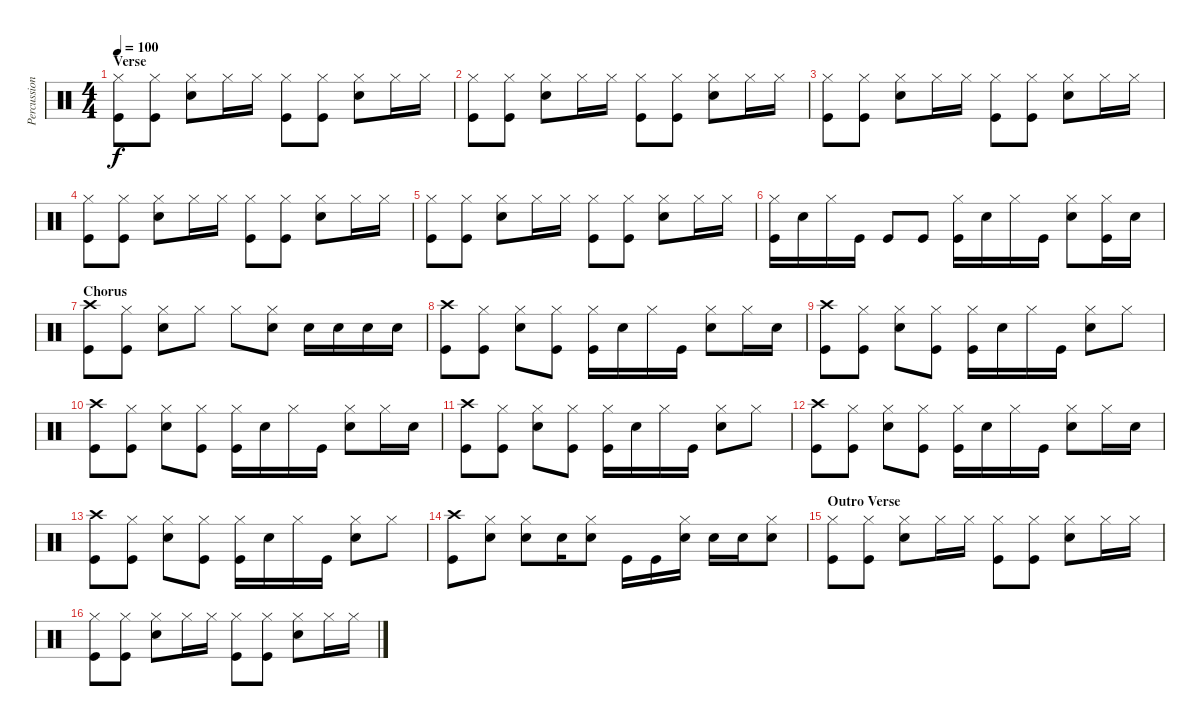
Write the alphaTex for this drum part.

\track ("Percussion" "Percussion") {instrument percussion}
\staff {score}
\articulation defaults
\ts (4 4)
\section ("" "Verse")
\tempo 100
\clef neutral
\ks c
("Hi-Hat (closed)" "Kick (hit)").8{dy f} ("Hi-Hat (closed)" "Kick (hit)").8 ("Hi-Hat (closed)" "Snare (hit) 2").8 "Hi-Hat (closed)".16 "Hi-Hat (closed)".16 ("Hi-Hat (closed)" "Kick (hit)").8 ("Hi-Hat (closed)" "Kick (hit)").8 ("Hi-Hat (closed)" "Snare (hit) 2").8 "Hi-Hat (closed)".16 "Hi-Hat (closed)".16 |
("Hi-Hat (closed)" "Kick (hit)").8 ("Hi-Hat (closed)" "Kick (hit)").8 ("Hi-Hat (closed)" "Snare (hit) 2").8 "Hi-Hat (closed)".16 "Hi-Hat (closed)".16 ("Hi-Hat (closed)" "Kick (hit)").8 ("Hi-Hat (closed)" "Kick (hit)").8 ("Hi-Hat (closed)" "Snare (hit) 2").8 "Hi-Hat (closed)".16 "Hi-Hat (closed)".16 |
("Hi-Hat (closed)" "Kick (hit)").8 ("Hi-Hat (closed)" "Kick (hit)").8 ("Hi-Hat (closed)" "Snare (hit) 2").8 "Hi-Hat (closed)".16 "Hi-Hat (closed)".16 ("Hi-Hat (closed)" "Kick (hit)").8 ("Hi-Hat (closed)" "Kick (hit)").8 ("Hi-Hat (closed)" "Snare (hit) 2").8 "Hi-Hat (closed)".16 "Hi-Hat (closed)".16 |
("Hi-Hat (closed)" "Kick (hit)").8 ("Hi-Hat (closed)" "Kick (hit)").8 ("Hi-Hat (closed)" "Snare (hit) 2").8 "Hi-Hat (closed)".16 "Hi-Hat (closed)".16 ("Hi-Hat (closed)" "Kick (hit)").8 ("Hi-Hat (closed)" "Kick (hit)").8 ("Hi-Hat (closed)" "Snare (hit) 2").8 "Hi-Hat (closed)".16 "Hi-Hat (closed)".16 |
("Hi-Hat (closed)" "Kick (hit)").8 ("Hi-Hat (closed)" "Kick (hit)").8 ("Hi-Hat (closed)" "Snare (hit) 2").8 "Hi-Hat (closed)".16 "Hi-Hat (closed)".16 ("Hi-Hat (closed)" "Kick (hit)").8 ("Hi-Hat (closed)" "Kick (hit)").8 ("Hi-Hat (closed)" "Snare (hit) 2").8 "Hi-Hat (closed)".16 "Hi-Hat (closed)".16 |
("Hi-Hat (closed)" "Kick (hit)").16 "Snare (hit) 2".16 "Hi-Hat (closed)".16 "Kick (hit)".16 "Kick (hit)".8 "Kick (hit)".8 ("Hi-Hat (closed)" "Kick (hit)").16 "Snare (hit) 2".16 "Hi-Hat (closed)".16 "Kick (hit)".16 ("Hi-Hat (closed)" "Snare (hit) 2").8 ("Hi-Hat (closed)" "Kick (hit)").16 "Snare (hit) 2".16 |
\section ("" "Chorus")
("Crash high (hit)" "Kick (hit)").8 ("Hi-Hat (closed)" "Kick (hit)").8 ("Hi-Hat (closed)" "Snare (hit) 2").8 "Hi-Hat (closed)".8 "Hi-Hat (closed)".8 ("Hi-Hat (closed)" "Snare (hit) 2").8 "Snare (hit) 2".16 "Snare (hit) 2".16 "Snare (hit) 2".16 "Snare (hit) 2".16 |
("Crash high (hit)" "Kick (hit)").8 ("Hi-Hat (closed)" "Kick (hit)").8 ("Hi-Hat (closed)" "Snare (hit) 2").8 ("Hi-Hat (closed)" "Kick (hit)").8 ("Hi-Hat (closed)" "Kick (hit)").16 "Snare (hit) 2".16 "Hi-Hat (closed)".16 "Kick (hit)".16 ("Hi-Hat (closed)" "Snare (hit) 2").8 "Hi-Hat (closed)".16 "Snare (hit) 2".16 |
("Crash high (hit)" "Kick (hit)").8 ("Hi-Hat (closed)" "Kick (hit)").8 ("Hi-Hat (closed)" "Snare (hit) 2").8 ("Hi-Hat (closed)" "Kick (hit)").8 ("Hi-Hat (closed)" "Kick (hit)").16 "Snare (hit) 2".16 "Hi-Hat (closed)".16 "Kick (hit)".16 ("Hi-Hat (closed)" "Snare (hit) 2").8 "Hi-Hat (closed)".8 |
("Crash high (hit)" "Kick (hit)").8 ("Hi-Hat (closed)" "Kick (hit)").8 ("Hi-Hat (closed)" "Snare (hit) 2").8 ("Hi-Hat (closed)" "Kick (hit)").8 ("Hi-Hat (closed)" "Kick (hit)").16 "Snare (hit) 2".16 "Hi-Hat (closed)".16 "Kick (hit)".16 ("Hi-Hat (closed)" "Snare (hit) 2").8 "Hi-Hat (closed)".16 "Snare (hit) 2".16 |
("Crash high (hit)" "Kick (hit)").8 ("Hi-Hat (closed)" "Kick (hit)").8 ("Hi-Hat (closed)" "Snare (hit) 2").8 ("Hi-Hat (closed)" "Kick (hit)").8 ("Hi-Hat (closed)" "Kick (hit)").16 "Snare (hit) 2".16 "Hi-Hat (closed)".16 "Kick (hit)".16 ("Hi-Hat (closed)" "Snare (hit) 2").8 "Hi-Hat (closed)".8 |
("Crash high (hit)" "Kick (hit)").8 ("Hi-Hat (closed)" "Kick (hit)").8 ("Hi-Hat (closed)" "Snare (hit) 2").8 ("Hi-Hat (closed)" "Kick (hit)").8 ("Hi-Hat (closed)" "Kick (hit)").16 "Snare (hit) 2".16 "Hi-Hat (closed)".16 "Kick (hit)".16 ("Hi-Hat (closed)" "Snare (hit) 2").8 "Hi-Hat (closed)".16 "Snare (hit) 2".16 |
("Crash high (hit)" "Kick (hit)").8 ("Hi-Hat (closed)" "Kick (hit)").8 ("Hi-Hat (closed)" "Snare (hit) 2").8 ("Hi-Hat (closed)" "Kick (hit)").8 ("Hi-Hat (closed)" "Kick (hit)").16 "Snare (hit) 2".16 "Hi-Hat (closed)".16 "Kick (hit)".16 ("Hi-Hat (closed)" "Snare (hit) 2").8 "Hi-Hat (closed)".8 |
("Crash high (hit)" "Kick (hit)").8 ("Hi-Hat (closed)" "Snare (hit) 2").8 ("Hi-Hat (closed)" "Snare (hit) 2").8 "Snare (hit) 2".16 ("Hi-Hat (closed)" "Snare (hit) 2").8 "Kick (hit)".16 "Kick (hit)".16 ("Hi-Hat (closed)" "Electric Snare (hit)").16 "Electric Snare (hit)".16 "Snare (hit) 2".16 ("Hi-Hat (closed)" "Electric Snare (hit)").8 |
\section ("" "Outro Verse")
("Hi-Hat (closed)" "Kick (hit)").8 ("Hi-Hat (closed)" "Kick (hit)").8 ("Hi-Hat (closed)" "Snare (hit) 2").8 "Hi-Hat (closed)".16 "Hi-Hat (closed)".16 ("Hi-Hat (closed)" "Kick (hit)").8 ("Hi-Hat (closed)" "Kick (hit)").8 ("Hi-Hat (closed)" "Snare (hit) 2").8 "Hi-Hat (closed)".16 "Hi-Hat (closed)".16 |
("Hi-Hat (closed)" "Kick (hit)").8 ("Hi-Hat (closed)" "Kick (hit)").8 ("Hi-Hat (closed)" "Snare (hit) 2").8 "Hi-Hat (closed)".16 "Hi-Hat (closed)".16 ("Hi-Hat (closed)" "Kick (hit)").8 ("Hi-Hat (closed)" "Kick (hit)").8 ("Hi-Hat (closed)" "Snare (hit) 2").8 "Hi-Hat (closed)".16 "Hi-Hat (closed)".16
